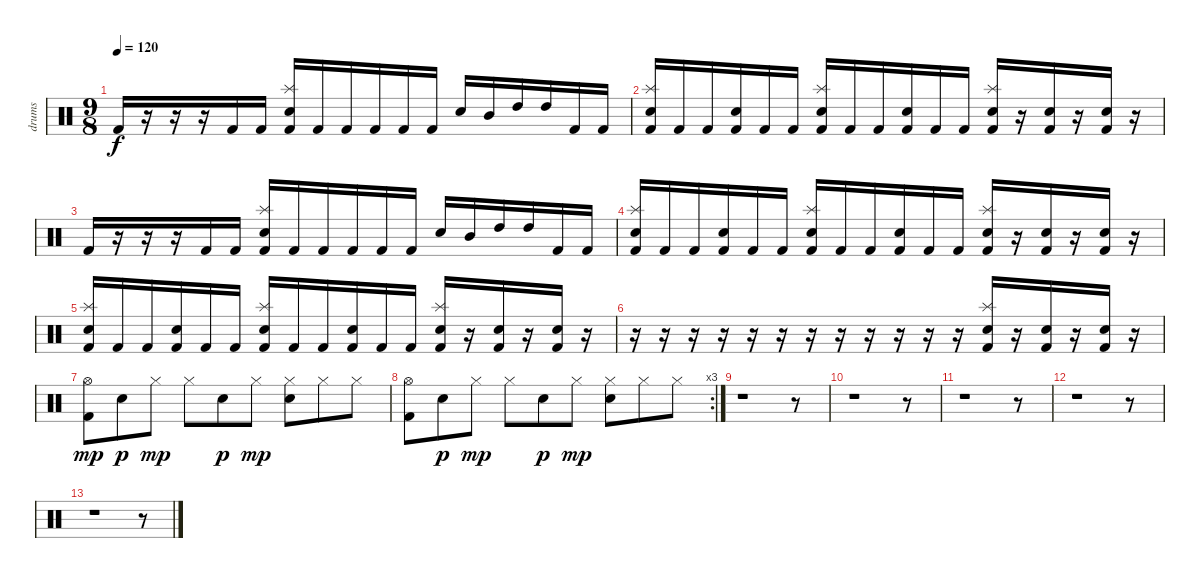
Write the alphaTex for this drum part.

\track ("drums" "drums") {instrument percussion}
\staff {score}
\articulation defaults
\ts (9 8)
\tempo 120
\clef neutral
\ks c "Kick (hit) 2".16{dy f}
r.16 r.16 r.16 "Kick (hit) 2".16 "Kick (hit) 2".16 ("Kick (hit) 2" "Splash (hit)" "Snare (hit) 2").16 "Kick (hit) 2".16 "Kick (hit) 2".16 "Kick (hit) 2".16 "Kick (hit) 2".16 "Kick (hit) 2".16 "Snare (hit) 2".16 "Mid Tom (hit)".16 "High Tom (hit)".16 "High Tom (hit)".16 "Kick (hit) 2".16 "Kick (hit) 2".16 |
("Kick (hit) 2" "Splash (hit)" "Snare (hit) 2").16 "Kick (hit) 2".16 "Kick (hit) 2".16 ("Kick (hit) 2" "Snare (hit) 2").16 "Kick (hit) 2".16 "Kick (hit) 2".16 ("Kick (hit) 2" "Splash (hit)" "Snare (hit) 2").16 "Kick (hit) 2".16 "Kick (hit) 2".16 ("Kick (hit) 2" "Snare (hit) 2").16 "Kick (hit) 2".16 "Kick (hit) 2".16 ("Kick (hit) 2" "Splash (hit)" "Snare (hit) 2").16 r.16 ("Kick (hit) 2" "Snare (hit) 2").16 r.16 ("Kick (hit) 2" "Snare (hit) 2").16 r.16 |
"Kick (hit) 2".16 r.16 r.16 r.16 "Kick (hit) 2".16 "Kick (hit) 2".16 ("Kick (hit) 2" "Splash (hit)" "Snare (hit) 2").16 "Kick (hit) 2".16 "Kick (hit) 2".16 "Kick (hit) 2".16 "Kick (hit) 2".16 "Kick (hit) 2".16 "Snare (hit) 2".16 "Mid Tom (hit)".16 "High Tom (hit)".16 "High Tom (hit)".16 "Kick (hit) 2".16 "Kick (hit) 2".16 |
("Kick (hit) 2" "Splash (hit)" "Snare (hit) 2").16 "Kick (hit) 2".16 "Kick (hit) 2".16 ("Kick (hit) 2" "Snare (hit) 2").16 "Kick (hit) 2".16 "Kick (hit) 2".16 ("Kick (hit) 2" "Splash (hit)" "Snare (hit) 2").16 "Kick (hit) 2".16 "Kick (hit) 2".16 ("Kick (hit) 2" "Snare (hit) 2").16 "Kick (hit) 2".16 "Kick (hit) 2".16 ("Kick (hit) 2" "Splash (hit)" "Snare (hit) 2").16 r.16 ("Kick (hit) 2" "Snare (hit) 2").16 r.16 ("Kick (hit) 2" "Snare (hit) 2").16 r.16 |
("Kick (hit) 2" "Splash (hit)" "Snare (hit) 2").16 "Kick (hit) 2".16 "Kick (hit) 2".16 ("Kick (hit) 2" "Snare (hit) 2").16 "Kick (hit) 2".16 "Kick (hit) 2".16 ("Kick (hit) 2" "Splash (hit)" "Snare (hit) 2").16 "Kick (hit) 2".16 "Kick (hit) 2".16 ("Kick (hit) 2" "Snare (hit) 2").16 "Kick (hit) 2".16 "Kick (hit) 2".16 ("Kick (hit) 2" "Splash (hit)" "Snare (hit) 2").16 r.16 ("Kick (hit) 2" "Snare (hit) 2").16 r.16 ("Kick (hit) 2" "Snare (hit) 2").16 r.16 |
r.16 r.16 r.16 r.16 r.16 r.16 r.16 r.16 r.16 r.16 r.16 r.16 ("Kick (hit) 2" "Splash (hit)" "Snare (hit) 2").16 r.16 ("Kick (hit) 2" "Snare (hit) 2").16 r.16 ("Kick (hit) 2" "Snare (hit) 2").16 r.16 |
("Hi-Hat (open)" "Kick (hit) 2").8{dy mp} "Snare (hit) 2".8{dy p} "Hi-Hat (closed)".8{dy mp} "Hi-Hat (closed)".8 "Snare (hit) 2".8{dy p} "Hi-Hat (closed)".8{dy mp} ("Hi-Hat (closed)" "Snare (hit) 2").8 "Hi-Hat (closed)".8 "Hi-Hat (closed)".8 |
\rc 3
("Hi-Hat (open)" "Kick (hit) 2").8 "Snare (hit) 2".8{dy p} "Hi-Hat (closed)".8{dy mp} "Hi-Hat (closed)".8 "Snare (hit) 2".8{dy p} "Hi-Hat (closed)".8{dy mp} ("Hi-Hat (closed)" "Snare (hit) 2").8 "Hi-Hat (closed)".8 "Hi-Hat (closed)".8 |
r.1 r.8 |
r.1 r.8 |
r.1 r.8 |
r.1 r.8 |
r.1 r.8
